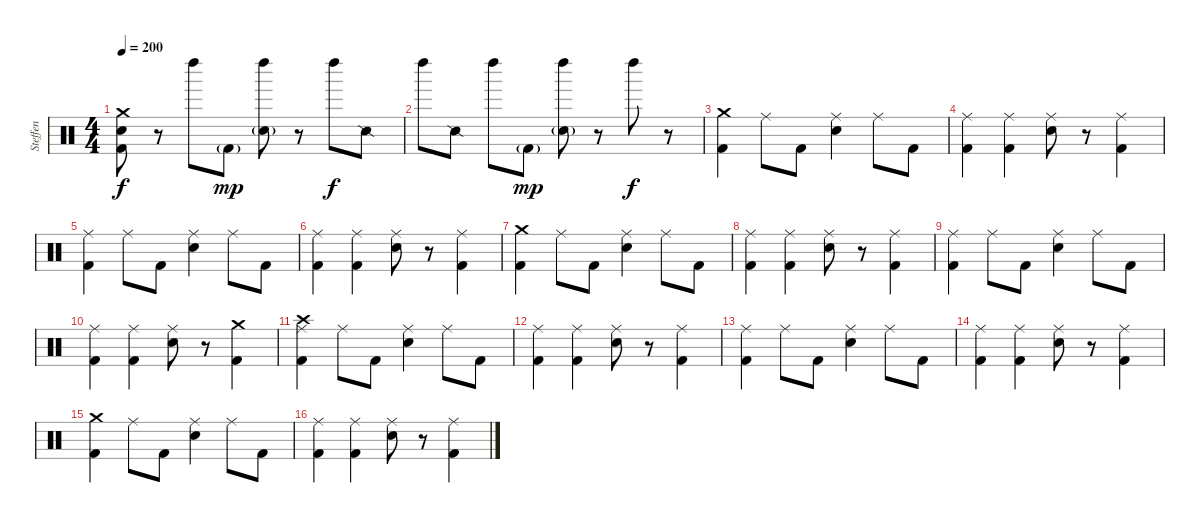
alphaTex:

\track ("Steffen" "Steffen") {instrument percussion}
\staff {score}
\articulation defaults
\ts (4 4)
\tempo 200
\clef neutral
\ks c
("Crash medium (hit)" "Kick (hit) 2" "Electric Snare (hit)").8{dy f} r.8 "Left Maraca (hit)".8 "Kick (hit) 2"{g}.8{dy mp} ("Left Maraca (hit)" "Electric Snare (hit)"{g}).8 r.8 "Left Maraca (hit)".8{dy f} "Snare (side stick) 2".8 |
"Left Maraca (hit)".8 "Snare (side stick) 2".8 "Left Maraca (hit)".8 "Kick (hit) 2"{g}.8{dy mp} ("Left Maraca (hit)" "Electric Snare (hit)"{g}).8 r.8 "Left Maraca (hit)".8{dy f} r.8 |
("Crash medium (hit)" "Kick (hit) 2").4 "Ride (middle)".8 "Kick (hit) 2".8 ("Ride (middle)" "Electric Snare (hit)").4 "Ride (middle)".8 "Kick (hit) 2".8 |
("Ride (middle)" "Kick (hit) 2").4 ("Ride (middle)" "Kick (hit) 2").4 ("Ride (middle)" "Electric Snare (hit)").8 r.8 ("Ride (middle)" "Kick (hit) 2").4 |
("Ride (middle)" "Kick (hit) 2").4 "Ride (middle)".8 "Kick (hit) 2".8 ("Ride (middle)" "Electric Snare (hit)").4 "Ride (middle)".8 "Kick (hit) 2".8 |
("Ride (middle)" "Kick (hit) 2").4 ("Ride (middle)" "Kick (hit) 2").4 ("Ride (middle)" "Electric Snare (hit)").8 r.8 ("Ride (middle)" "Kick (hit) 2").4 |
("Crash medium (hit)" "Kick (hit) 2").4 "Ride (middle)".8 "Kick (hit) 2".8 ("Ride (middle)" "Electric Snare (hit)").4 "Ride (middle)".8 "Kick (hit) 2".8 |
("Ride (middle)" "Kick (hit) 2").4 ("Ride (middle)" "Kick (hit) 2").4 ("Ride (middle)" "Electric Snare (hit)").8 r.8 ("Ride (middle)" "Kick (hit) 2").4 |
("Ride (middle)" "Kick (hit) 2").4 "Ride (middle)".8 "Kick (hit) 2".8 ("Ride (middle)" "Electric Snare (hit)").4 "Ride (middle)".8 "Kick (hit) 2".8 |
("Ride (middle)" "Kick (hit) 2").4 ("Ride (middle)" "Kick (hit) 2").4 ("Ride (middle)" "Electric Snare (hit)").8 r.8 ("Crash medium (hit)" "Kick (hit) 2").4 |
("Ride (middle)" "Crash high (hit)" "Kick (hit) 2").4 "Ride (middle)".8 "Kick (hit) 2".8 ("Ride (middle)" "Electric Snare (hit)").4 "Ride (middle)".8 "Kick (hit) 2".8 |
("Ride (middle)" "Kick (hit) 2").4 ("Ride (middle)" "Kick (hit) 2").4 ("Ride (middle)" "Electric Snare (hit)").8 r.8 ("Ride (middle)" "Kick (hit) 2").4 |
("Ride (middle)" "Kick (hit) 2").4 "Ride (middle)".8 "Kick (hit) 2".8 ("Ride (middle)" "Electric Snare (hit)").4 "Ride (middle)".8 "Kick (hit) 2".8 |
("Ride (middle)" "Kick (hit) 2").4 ("Ride (middle)" "Kick (hit) 2").4 ("Ride (middle)" "Electric Snare (hit)").8 r.8 ("Ride (middle)" "Kick (hit) 2").4 |
("Crash medium (hit)" "Kick (hit) 2").4 "Ride (middle)".8 "Kick (hit) 2".8 ("Ride (middle)" "Electric Snare (hit)").4 "Ride (middle)".8 "Kick (hit) 2".8 |
("Ride (middle)" "Kick (hit) 2").4 ("Ride (middle)" "Kick (hit) 2").4 ("Ride (middle)" "Electric Snare (hit)").8 r.8 ("Ride (middle)" "Kick (hit) 2").4
